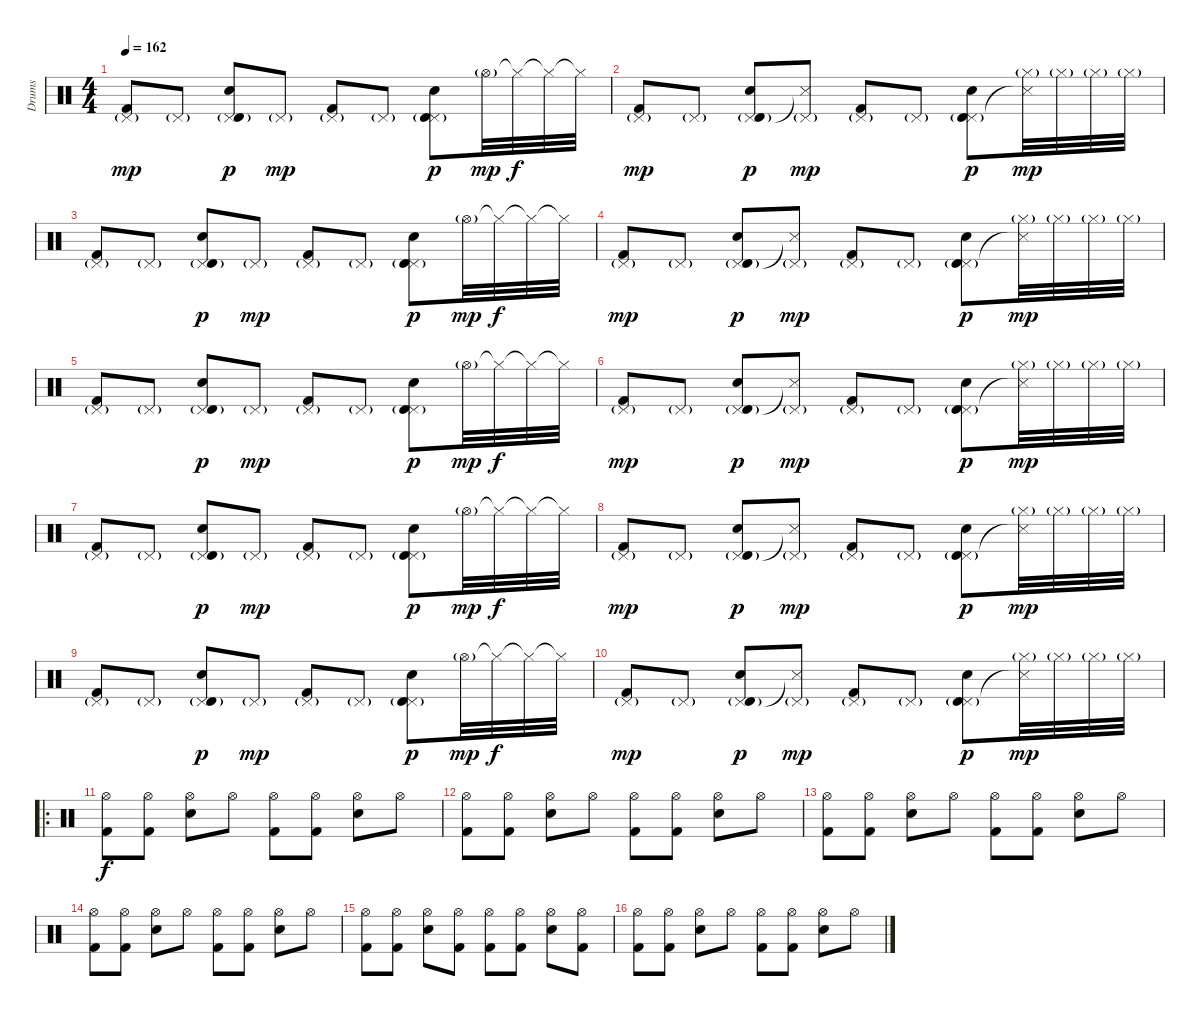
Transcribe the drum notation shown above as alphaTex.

\track ("Drums" "Drums") {instrument percussion}
\staff {score}
\articulation defaults
\ts (4 4)
\tempo 162
\clef neutral
\ks c
("Pedal Hi-Hat (hit)"{g} "Kick (hit) 2").8{dy mp} "Pedal Hi-Hat (hit)"{g}.8 ("Pedal Hi-Hat (hit)"{g} "Timbale high (hit)" "Electric Snare (hit)").8{dy p} "Pedal Hi-Hat (hit)"{g}.8{dy mp} ("Pedal Hi-Hat (hit)"{g} "Kick (hit) 2").8 "Pedal Hi-Hat (hit)"{g}.8 ("Pedal Hi-Hat (hit)"{g} "Timbale high (hit)" "Electric Snare (hit)").8{dy p} "Hi-Hat (open)"{g}.32{dy mp} "Hi-Hat (closed)"{t}.32{dy f} "Hi-Hat (closed)"{t}.32 "Hi-Hat (closed)"{t}.32 |
("Pedal Hi-Hat (hit)"{g} "Kick (hit) 2").8{dy mp} "Pedal Hi-Hat (hit)"{g}.8 ("Pedal Hi-Hat (hit)"{g} "Timbale high (hit)" "Electric Snare (hit)").8{dy p} ("Pedal Hi-Hat (hit)"{g} "Snare (side stick) 3"{t}).8{dy mp} ("Pedal Hi-Hat (hit)"{g} "Kick (hit) 2").8 "Pedal Hi-Hat (hit)"{g}.8 ("Pedal Hi-Hat (hit)"{g} "Timbale high (hit)" "Electric Snare (hit)").8{dy p} ("Hi-Hat (closed)"{g} "Snare (side stick) 3"{t}).32{dy mp} "Hi-Hat (closed)"{g}.32 "Hi-Hat (closed)"{g}.32 "Hi-Hat (closed)"{g}.32 |
("Pedal Hi-Hat (hit)"{g} "Kick (hit) 2").8 "Pedal Hi-Hat (hit)"{g}.8 ("Pedal Hi-Hat (hit)"{g} "Timbale high (hit)" "Electric Snare (hit)").8{dy p} "Pedal Hi-Hat (hit)"{g}.8{dy mp} ("Pedal Hi-Hat (hit)"{g} "Kick (hit) 2").8 "Pedal Hi-Hat (hit)"{g}.8 ("Pedal Hi-Hat (hit)"{g} "Timbale high (hit)" "Electric Snare (hit)").8{dy p} "Hi-Hat (open)"{g}.32{dy mp} "Hi-Hat (closed)"{t}.32{dy f} "Hi-Hat (closed)"{t}.32 "Hi-Hat (closed)"{t}.32 |
("Pedal Hi-Hat (hit)"{g} "Kick (hit) 2").8{dy mp} "Pedal Hi-Hat (hit)"{g}.8 ("Pedal Hi-Hat (hit)"{g} "Timbale high (hit)" "Electric Snare (hit)").8{dy p} ("Pedal Hi-Hat (hit)"{g} "Snare (side stick) 3"{t}).8{dy mp} ("Pedal Hi-Hat (hit)"{g} "Kick (hit) 2").8 "Pedal Hi-Hat (hit)"{g}.8 ("Pedal Hi-Hat (hit)"{g} "Timbale high (hit)" "Electric Snare (hit)").8{dy p} ("Hi-Hat (closed)"{g} "Snare (side stick) 3"{t}).32{dy mp} "Hi-Hat (closed)"{g}.32 "Hi-Hat (closed)"{g}.32 "Hi-Hat (closed)"{g}.32 |
("Pedal Hi-Hat (hit)"{g} "Kick (hit) 2").8 "Pedal Hi-Hat (hit)"{g}.8 ("Pedal Hi-Hat (hit)"{g} "Timbale high (hit)" "Electric Snare (hit)").8{dy p} "Pedal Hi-Hat (hit)"{g}.8{dy mp} ("Pedal Hi-Hat (hit)"{g} "Kick (hit) 2").8 "Pedal Hi-Hat (hit)"{g}.8 ("Pedal Hi-Hat (hit)"{g} "Timbale high (hit)" "Electric Snare (hit)").8{dy p} "Hi-Hat (open)"{g}.32{dy mp} "Hi-Hat (closed)"{t}.32{dy f} "Hi-Hat (closed)"{t}.32 "Hi-Hat (closed)"{t}.32 |
("Pedal Hi-Hat (hit)"{g} "Kick (hit) 2").8{dy mp} "Pedal Hi-Hat (hit)"{g}.8 ("Pedal Hi-Hat (hit)"{g} "Timbale high (hit)" "Electric Snare (hit)").8{dy p} ("Pedal Hi-Hat (hit)"{g} "Snare (side stick) 3"{t}).8{dy mp} ("Pedal Hi-Hat (hit)"{g} "Kick (hit) 2").8 "Pedal Hi-Hat (hit)"{g}.8 ("Pedal Hi-Hat (hit)"{g} "Timbale high (hit)" "Electric Snare (hit)").8{dy p} ("Hi-Hat (closed)"{g} "Snare (side stick) 3"{t}).32{dy mp} "Hi-Hat (closed)"{g}.32 "Hi-Hat (closed)"{g}.32 "Hi-Hat (closed)"{g}.32 |
("Pedal Hi-Hat (hit)"{g} "Kick (hit) 2").8 "Pedal Hi-Hat (hit)"{g}.8 ("Pedal Hi-Hat (hit)"{g} "Timbale high (hit)" "Electric Snare (hit)").8{dy p} "Pedal Hi-Hat (hit)"{g}.8{dy mp} ("Pedal Hi-Hat (hit)"{g} "Kick (hit) 2").8 "Pedal Hi-Hat (hit)"{g}.8 ("Pedal Hi-Hat (hit)"{g} "Timbale high (hit)" "Electric Snare (hit)").8{dy p} "Hi-Hat (open)"{g}.32{dy mp} "Hi-Hat (closed)"{t}.32{dy f} "Hi-Hat (closed)"{t}.32 "Hi-Hat (closed)"{t}.32 |
("Pedal Hi-Hat (hit)"{g} "Kick (hit) 2").8{dy mp} "Pedal Hi-Hat (hit)"{g}.8 ("Pedal Hi-Hat (hit)"{g} "Timbale high (hit)" "Electric Snare (hit)").8{dy p} ("Pedal Hi-Hat (hit)"{g} "Snare (side stick) 3"{t}).8{dy mp} ("Pedal Hi-Hat (hit)"{g} "Kick (hit) 2").8 "Pedal Hi-Hat (hit)"{g}.8 ("Pedal Hi-Hat (hit)"{g} "Timbale high (hit)" "Electric Snare (hit)").8{dy p} ("Hi-Hat (closed)"{g} "Snare (side stick) 3"{t}).32{dy mp} "Hi-Hat (closed)"{g}.32 "Hi-Hat (closed)"{g}.32 "Hi-Hat (closed)"{g}.32 |
("Pedal Hi-Hat (hit)"{g} "Kick (hit) 2").8 "Pedal Hi-Hat (hit)"{g}.8 ("Pedal Hi-Hat (hit)"{g} "Timbale high (hit)" "Electric Snare (hit)").8{dy p} "Pedal Hi-Hat (hit)"{g}.8{dy mp} ("Pedal Hi-Hat (hit)"{g} "Kick (hit) 2").8 "Pedal Hi-Hat (hit)"{g}.8 ("Pedal Hi-Hat (hit)"{g} "Timbale high (hit)" "Electric Snare (hit)").8{dy p} "Hi-Hat (open)"{g}.32{dy mp} "Hi-Hat (closed)"{t}.32{dy f} "Hi-Hat (closed)"{t}.32 "Hi-Hat (closed)"{t}.32 |
("Pedal Hi-Hat (hit)"{g} "Kick (hit) 2").8{dy mp} "Pedal Hi-Hat (hit)"{g}.8 ("Pedal Hi-Hat (hit)"{g} "Timbale high (hit)" "Electric Snare (hit)").8{dy p} ("Pedal Hi-Hat (hit)"{g} "Snare (side stick) 3"{t}).8{dy mp} ("Pedal Hi-Hat (hit)"{g} "Kick (hit) 2").8 "Pedal Hi-Hat (hit)"{g}.8 ("Pedal Hi-Hat (hit)"{g} "Timbale high (hit)" "Electric Snare (hit)").8{dy p} ("Hi-Hat (closed)"{g} "Snare (side stick) 3"{t}).32{dy mp} "Hi-Hat (closed)"{g}.32 "Hi-Hat (closed)"{g}.32 "Hi-Hat (closed)"{g}.32 |
\ro
("Hi-Hat (open)" "Kick (hit) 2").8{dy f} ("Hi-Hat (open)" "Kick (hit) 2").8 ("Hi-Hat (open)" "Electric Snare (hit)").8 "Hi-Hat (open)".8 ("Hi-Hat (open)" "Kick (hit) 2").8 ("Hi-Hat (open)" "Kick (hit) 2").8 ("Hi-Hat (open)" "Electric Snare (hit)").8 "Hi-Hat (open)".8 |
("Hi-Hat (open)" "Kick (hit) 2").8 ("Hi-Hat (open)" "Kick (hit) 2").8 ("Hi-Hat (open)" "Electric Snare (hit)").8 "Hi-Hat (open)".8 ("Hi-Hat (open)" "Kick (hit) 2").8 ("Hi-Hat (open)" "Kick (hit) 2").8 ("Hi-Hat (open)" "Electric Snare (hit)").8 "Hi-Hat (open)".8 |
("Hi-Hat (open)" "Kick (hit) 2").8 ("Hi-Hat (open)" "Kick (hit) 2").8 ("Hi-Hat (open)" "Electric Snare (hit)").8 "Hi-Hat (open)".8 ("Hi-Hat (open)" "Kick (hit) 2").8 ("Hi-Hat (open)" "Kick (hit) 2").8 ("Hi-Hat (open)" "Electric Snare (hit)").8 "Hi-Hat (open)".8 |
("Hi-Hat (open)" "Kick (hit) 2").8 ("Hi-Hat (open)" "Kick (hit) 2").8 ("Hi-Hat (open)" "Electric Snare (hit)").8 "Hi-Hat (open)".8 ("Hi-Hat (open)" "Kick (hit) 2").8 ("Hi-Hat (open)" "Kick (hit) 2").8 ("Hi-Hat (open)" "Electric Snare (hit)").8 "Hi-Hat (open)".8 |
("Hi-Hat (open)" "Kick (hit) 2").8 ("Hi-Hat (open)" "Kick (hit) 2").8 ("Hi-Hat (open)" "Electric Snare (hit)").8 ("Hi-Hat (open)" "Kick (hit) 2").8 ("Hi-Hat (open)" "Kick (hit) 2").8 ("Hi-Hat (open)" "Kick (hit) 2").8 ("Hi-Hat (open)" "Electric Snare (hit)").8 ("Hi-Hat (open)" "Kick (hit) 2").8 |
("Hi-Hat (open)" "Kick (hit) 2").8 ("Hi-Hat (open)" "Kick (hit) 2").8 ("Hi-Hat (open)" "Electric Snare (hit)").8 "Hi-Hat (open)".8 ("Hi-Hat (open)" "Kick (hit) 2").8 ("Hi-Hat (open)" "Kick (hit) 2").8 ("Hi-Hat (open)" "Electric Snare (hit)").8 "Hi-Hat (open)".8
